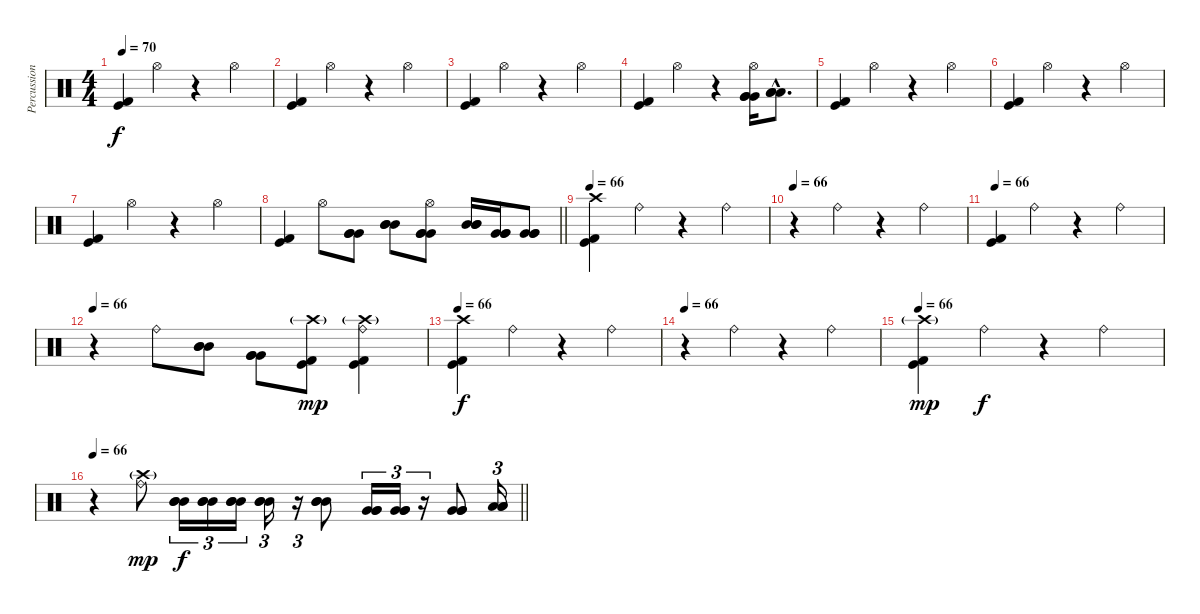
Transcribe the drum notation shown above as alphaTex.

\track ("Percussions" "Percussion") {instrument percussion}
\staff {score}
\articulation defaults
\ts (4 4)
\tempo 70
\clef neutral
\ks c
("Kick (hit)" "Kick (hit) 2").4{dy f} "Hi-Hat (open)".4 r.4 "Hi-Hat (open)".4 |
("Kick (hit)" "Kick (hit) 2").4 "Hi-Hat (open)".4 r.4 "Hi-Hat (open)".4 |
("Kick (hit)" "Kick (hit) 2").4 "Hi-Hat (open)".4 r.4 "Hi-Hat (open)".4 |
("Kick (hit)" "Kick (hit) 2").4 "Hi-Hat (open)".4 r.4 ("Hi-Hat (open)" "Very Low Tom (hit)" "Very Low Tom (hit)" "Very Low Tom (hit)").16 ("Low Floor Tom (hit)"{hac} "Low Floor Tom (hit)"{hac} "Low Floor Tom (hit)"{hac}).8{d} |
("Kick (hit)" "Kick (hit) 2").4 "Hi-Hat (open)".4 r.4 "Hi-Hat (open)".4 |
("Kick (hit)" "Kick (hit) 2").4 "Hi-Hat (open)".4 r.4 "Hi-Hat (open)".4 |
("Kick (hit)" "Kick (hit) 2").4 "Hi-Hat (open)".4 r.4 "Hi-Hat (open)".4 |
\barLineRight lightlight
("Kick (hit)" "Kick (hit) 2").4 "Hi-Hat (open)".8 ("Very Low Tom (hit)" "Very Low Tom (hit)" "Very Low Tom (hit)").8 ("Mid Tom (hit)" "Mid Tom (hit)" "Mid Tom (hit)").8 ("Hi-Hat (open)" "Very Low Tom (hit)" "Very Low Tom (hit)" "Very Low Tom (hit)").8 ("Mid Tom (hit)" "Mid Tom (hit)" "Mid Tom (hit)").16 ("Very Low Tom (hit)" "Very Low Tom (hit)" "Very Low Tom (hit)").16 ("Very Low Tom (hit)" "Very Low Tom (hit)" "Very Low Tom (hit)").8 |
\tempo 66
("Crash high (hit)" "Kick (hit)" "Kick (hit) 2").4 "Ride (bell)".4 r.4 "Ride (bell)".4 |
\tempo 66
r.4 "Ride (bell)".4 r.4 "Ride (bell)".4 |
\tempo 66
("Kick (hit)" "Kick (hit) 2").4 "Ride (bell)".4 r.4 "Ride (bell)".4 |
\tempo 66
r.4 "Ride (bell)".8 ("Mid Tom (hit)" "Mid Tom (hit)" "Mid Tom (hit)").8 ("Very Low Tom (hit)" "Very Low Tom (hit)" "Very Low Tom (hit)").8 ("Crash high (hit)"{g} "Kick (hit)" "Kick (hit) 2").8{dy mp} ("Ride (bell)" "Crash high (hit)"{g} "Kick (hit)" "Kick (hit) 2").4 |
\tempo 66
("Crash high (hit)" "Kick (hit)" "Kick (hit) 2").4{dy f} "Ride (bell)".4 r.4 "Ride (bell)".4 |
\tempo 66
r.4 "Ride (bell)".4 r.4 "Ride (bell)".4 |
\tempo 66
("Crash high (hit)"{g} "Kick (hit)" "Kick (hit) 2").4{dy mp} "Ride (bell)".4{dy f} r.4 "Ride (bell)".4 |
\tempo 66
\barLineRight lightlight
r.4 ("Ride (bell)" "Crash high (hit)"{g}).8{dy mp} ("Mid Tom (hit)" "Mid Tom (hit)" "Mid Tom (hit)").16{tu (3 2) dy f} ("Mid Tom (hit)" "Mid Tom (hit)" "Mid Tom (hit)").16{tu (3 2)} ("Mid Tom (hit)" "Mid Tom (hit)" "Mid Tom (hit)").16{tu (3 2)} ("Mid Tom (hit)" "Mid Tom (hit)" "Mid Tom (hit)").16{tu (3 2)} r.16{tu (3 2)} ("Mid Tom (hit)" "Mid Tom (hit)" "Mid Tom (hit)").8 ("Very Low Tom (hit)" "Very Low Tom (hit)" "Very Low Tom (hit)").16{tu (3 2)} ("Very Low Tom (hit)" "Very Low Tom (hit)" "Very Low Tom (hit)").16{tu (3 2)} r.16{tu (3 2)} ("Very Low Tom (hit)" "Very Low Tom (hit)" "Very Low Tom (hit)").8 ("Low Floor Tom (hit)" "Low Floor Tom (hit)" "Low Floor Tom (hit)").16{tu (3 2)}
